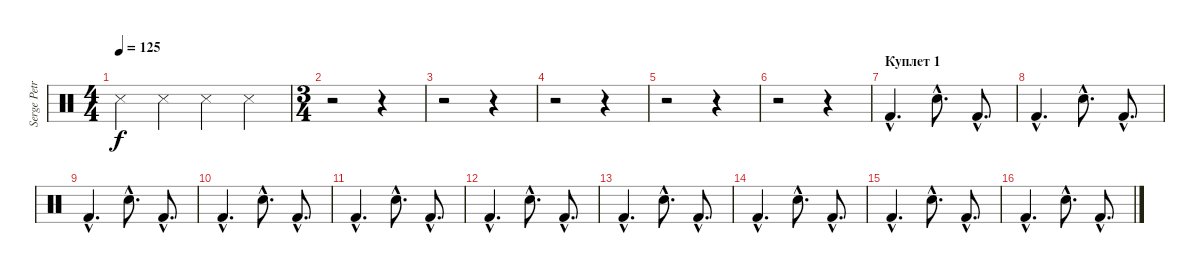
\track ("Serge Petrone" "Serge Petr") {instrument percussion}
\staff {score}
\articulation defaults
\ts (4 4)
\tempo 125
\clef neutral
\ks c "Snare (side stick) 3".4{dy f} "Snare (side stick) 3".4 "Snare (side stick) 3".4 "Snare (side stick) 3".4
|
\ts (3 4)
r.2 r.4 |
r.2 r.4 |
r.2 r.4 |
r.2 r.4 |
r.2 r.4 |
\section ("" "Куплет 1")
"Kick (hit) 2"{hac}.4{d} "Snare (hit) 2"{hac}.8{d} "Kick (hit) 2"{hac}.8{d} |
"Kick (hit) 2"{hac}.4{d} "Snare (hit) 2"{hac}.8{d} "Kick (hit) 2"{hac}.8{d} |
"Kick (hit) 2"{hac}.4{d} "Snare (hit) 2"{hac}.8{d} "Kick (hit) 2"{hac}.8{d} |
"Kick (hit) 2"{hac}.4{d} "Snare (hit) 2"{hac}.8{d} "Kick (hit) 2"{hac}.8{d} |
"Kick (hit) 2"{hac}.4{d} "Snare (hit) 2"{hac}.8{d} "Kick (hit) 2"{hac}.8{d} |
"Kick (hit) 2"{hac}.4{d} "Snare (hit) 2"{hac}.8{d} "Kick (hit) 2"{hac}.8{d} |
"Kick (hit) 2"{hac}.4{d} "Snare (hit) 2"{hac}.8{d} "Kick (hit) 2"{hac}.8{d} |
"Kick (hit) 2"{hac}.4{d} "Snare (hit) 2"{hac}.8{d} "Kick (hit) 2"{hac}.8{d} |
"Kick (hit) 2"{hac}.4{d} "Snare (hit) 2"{hac}.8{d} "Kick (hit) 2"{hac}.8{d} |
"Kick (hit) 2"{hac}.4{d} "Snare (hit) 2"{hac}.8{d} "Kick (hit) 2"{hac}.8{d}
